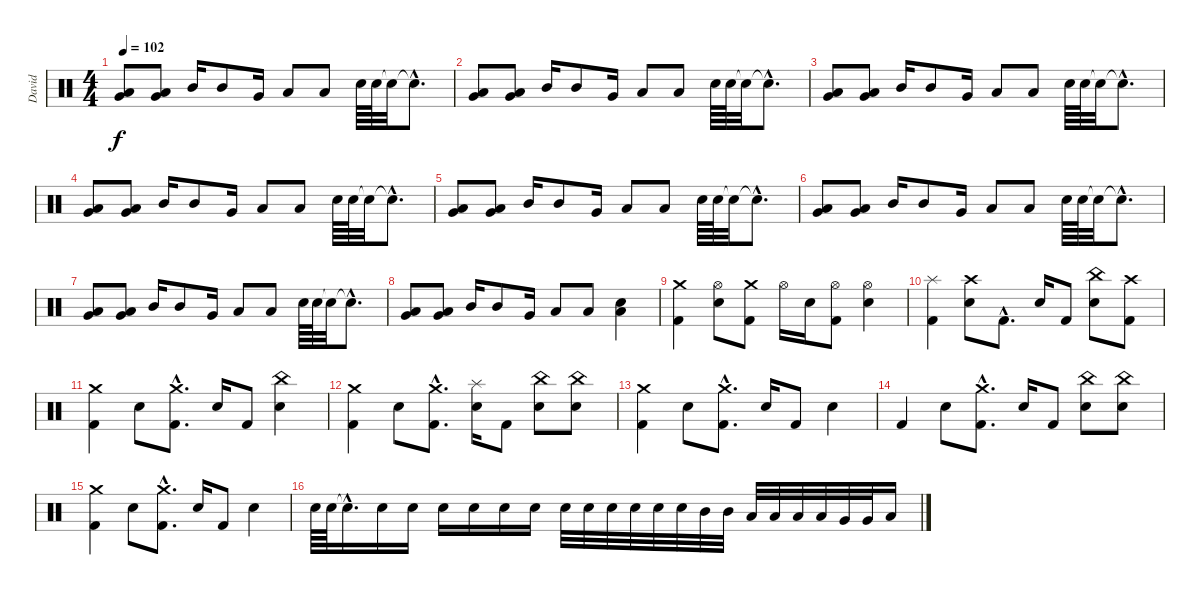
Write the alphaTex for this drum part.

\track ("David" "David") {instrument percussion}
\staff {score}
\articulation defaults
\ts (4 4)
\tempo 102
\clef neutral
\ks c
("Low Tom (hit)" "Very Low Tom (hit)").8{dy f} ("Low Tom (hit)" "Very Low Tom (hit)").8 "Mid Tom (hit)".16 "Mid Tom (hit)".8 "Very Low Tom (hit)".16 "Low Tom (hit)".8 "Low Tom (hit)".8 "Snare (hit) 2".64 "Snare (hit) 2".64 "Snare (hit)"{t}.32 "Snare (hit)"{hac t}.8{d} |
("Low Tom (hit)" "Very Low Tom (hit)").8 ("Low Tom (hit)" "Very Low Tom (hit)").8 "Mid Tom (hit)".16 "Mid Tom (hit)".8 "Very Low Tom (hit)".16 "Low Tom (hit)".8 "Low Tom (hit)".8 "Snare (hit) 2".64 "Snare (hit) 2".64 "Snare (hit)"{t}.32 "Snare (hit)"{hac t}.8{d} |
("Low Tom (hit)" "Very Low Tom (hit)").8 ("Low Tom (hit)" "Very Low Tom (hit)").8 "Mid Tom (hit)".16 "Mid Tom (hit)".8 "Very Low Tom (hit)".16 "Low Tom (hit)".8 "Low Tom (hit)".8 "Snare (hit) 2".64 "Snare (hit) 2".64 "Snare (hit)"{t}.32 "Snare (hit)"{hac t}.8{d} |
("Low Tom (hit)" "Very Low Tom (hit)").8 ("Low Tom (hit)" "Very Low Tom (hit)").8 "Mid Tom (hit)".16 "Mid Tom (hit)".8 "Very Low Tom (hit)".16 "Low Tom (hit)".8 "Low Tom (hit)".8 "Snare (hit) 2".64 "Snare (hit) 2".64 "Snare (hit)"{t}.32 "Snare (hit)"{hac t}.8{d} |
("Low Tom (hit)" "Very Low Tom (hit)").8 ("Low Tom (hit)" "Very Low Tom (hit)").8 "Mid Tom (hit)".16 "Mid Tom (hit)".8 "Very Low Tom (hit)".16 "Low Tom (hit)".8 "Low Tom (hit)".8 "Snare (hit) 2".64 "Snare (hit) 2".64 "Snare (hit)"{t}.32 "Snare (hit)"{hac t}.8{d} |
("Low Tom (hit)" "Very Low Tom (hit)").8 ("Low Tom (hit)" "Very Low Tom (hit)").8 "Mid Tom (hit)".16 "Mid Tom (hit)".8 "Very Low Tom (hit)".16 "Low Tom (hit)".8 "Low Tom (hit)".8 "Snare (hit) 2".64 "Snare (hit) 2".64 "Snare (hit)"{t}.32 "Snare (hit)"{hac t}.8{d} |
("Low Tom (hit)" "Very Low Tom (hit)").8 ("Low Tom (hit)" "Very Low Tom (hit)").8 "Mid Tom (hit)".16 "Mid Tom (hit)".8 "Very Low Tom (hit)".16 "Low Tom (hit)".8 "Low Tom (hit)".8 "Snare (hit) 2".64 "Snare (hit) 2".64 "Snare (hit)"{t}.32 "Snare (hit)"{hac t}.8{d} |
("Low Tom (hit)" "Very Low Tom (hit)").8 ("Low Tom (hit)" "Very Low Tom (hit)").8 "Mid Tom (hit)".16 "Mid Tom (hit)".8 "Very Low Tom (hit)".16 "Low Tom (hit)".8 "Low Tom (hit)".8 ("Snare (hit) 2" "Low Floor Tom (hit)").4 |
("Crash medium (hit)" "Kick (hit) 2").4 ("Hi-Hat (open)" "Snare (hit) 2").8 ("Crash medium (hit)" "Kick (hit) 2").8 "Hi-Hat (open)".16 "Snare (hit) 2".16 ("Hi-Hat (open)" "Kick (hit) 2").8 ("Hi-Hat (open)" "Snare (hit) 2").4 |
("Splash (hit)" "Kick (hit) 2").4 ("Crash high (hit)" "Snare (hit) 2").8 "Kick (hit) 2"{hac}.8{d} "Snare (hit) 2".16 "Kick (hit) 2".8 ("China (hit)" "Snare (hit) 2").8 ("Crash high (hit)" "Kick (hit) 2").8 |
("Crash medium (hit)" "Kick (hit) 2").4 "Snare (hit) 2".8 ("Crash medium (hit)"{hac} "Kick (hit) 2"{hac}).8{d} "Snare (hit) 2".16 "Kick (hit) 2".8 ("China (hit)" "Snare (hit) 2").4 |
("Crash medium (hit)" "Kick (hit) 2").4 "Snare (hit) 2".8 ("Crash medium (hit)"{hac} "Kick (hit) 2"{hac}).8{d} ("Splash (hit)" "Snare (hit) 2").16 "Kick (hit) 2".8 ("China (hit)" "Snare (hit) 2").8 ("China (hit)" "Snare (hit) 2").8 |
("Crash medium (hit)" "Kick (hit) 2").4 "Snare (hit) 2".8 ("Crash medium (hit)"{hac} "Kick (hit) 2"{hac}).8{d} "Snare (hit) 2".16 "Kick (hit) 2".8 "Snare (hit) 2".4 |
"Kick (hit) 2".4 "Snare (hit) 2".8 ("Crash medium (hit)"{hac} "Kick (hit) 2"{hac}).8{d} "Snare (hit) 2".16 "Kick (hit) 2".8 ("China (hit)" "Snare (hit) 2").8 ("China (hit)" "Snare (hit) 2").8 |
("Crash medium (hit)" "Kick (hit) 2").4 "Snare (hit) 2".8 ("Crash medium (hit)"{hac} "Kick (hit) 2"{hac}).8{d} "Snare (hit) 2".16 "Kick (hit) 2".8 "Snare (hit) 2".4 |
"Snare (hit) 2".64 "Snare (hit) 2".64 "Snare (hit)"{hac t}.16{d} "Snare (hit) 2".16 "Snare (hit) 2".16 "Snare (hit) 2".16 "Snare (hit) 2".16 "Snare (hit) 2".16 "Snare (hit) 2".16 "Snare (hit) 2".32 "Snare (hit) 2".32 "Snare (hit) 2".32 "Snare (hit) 2".32 "Snare (hit) 2".32 "Snare (hit) 2".32 "Mid Tom (hit)".32 "Mid Tom (hit)".32 "Low Tom (hit)".32 "Low Tom (hit)".32 "Low Tom (hit)".32 "Low Tom (hit)".32 "Very Low Tom (hit)".32 "Very Low Tom (hit)".32 "Low Floor Tom (hit)".16
